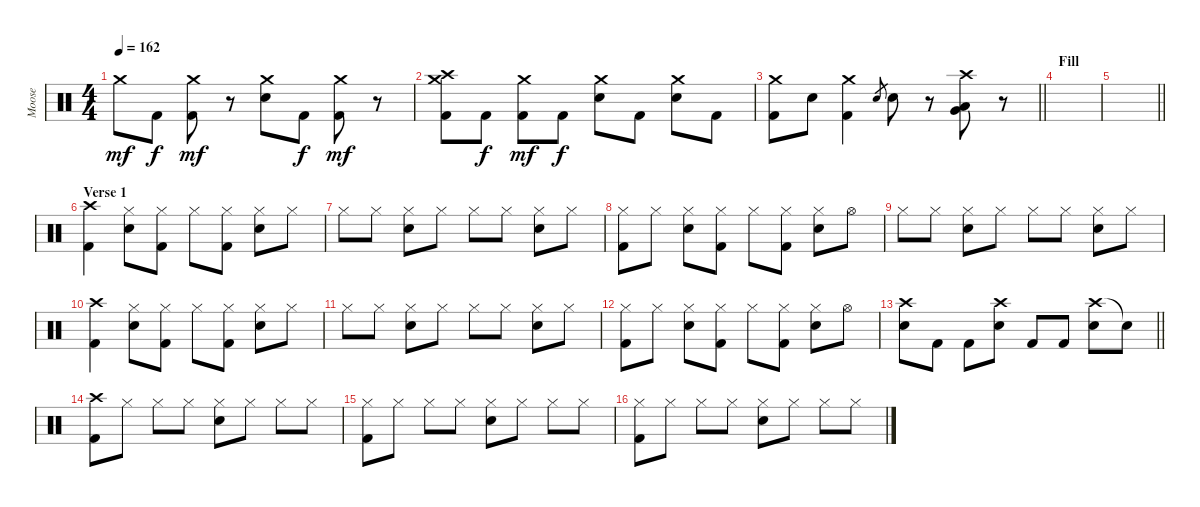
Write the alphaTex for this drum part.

\track ("Moose" "Moose") {instrument percussion}
\staff {score}
\articulation defaults
\ts (4 4)
\tempo 162
\clef neutral
\ks c "Crash medium (hit)".8{dy mf} "Kick (hit) 2".8{dy f}
("Kick (hit) 2" "Crash medium (hit)").8{dy mf} r.8 ("Snare (hit) 2" "Crash medium (hit)").8 "Kick (hit) 2".8{dy f} ("Kick (hit) 2" "Crash medium (hit)").8{dy mf} r.8 |
("Kick (hit) 2" "Crash high (hit)" "Crash medium (hit)").8 "Kick (hit) 2".8{dy f} ("Kick (hit) 2" "Crash medium (hit)").8{dy mf} "Kick (hit) 2".8{dy f} ("Crash medium (hit)" "Snare (hit) 2").8 "Kick (hit) 2".8 ("Crash medium (hit)" "Snare (hit) 2").8 "Kick (hit) 2".8 |
\barLineRight lightlight
("Crash medium (hit)" "Kick (hit) 2").8 "Snare (hit) 2".8 ("Crash medium (hit)" "Kick (hit) 2").4 "Snare (hit) 2".8{gr} "Snare (hit) 2".8 r.8 ("Crash high (hit)" "Very Low Tom (hit)" "Low Floor Tom (hit)").8 r.8 |
\section ("" "Fill")
|
\barLineRight lightlight
|
\section ("" "Verse 1")
("Crash high (hit)" "Kick (hit) 2").4 ("Hi-Hat (closed)" "Snare (hit) 2").8 ("Hi-Hat (closed)" "Kick (hit) 2").8 "Hi-Hat (closed)".8 ("Hi-Hat (closed)" "Kick (hit) 2").8 ("Hi-Hat (closed)" "Snare (hit) 2").8 "Hi-Hat (closed)".8 |
"Hi-Hat (closed)".8 "Hi-Hat (closed)".8 ("Hi-Hat (closed)" "Snare (hit) 2").8 "Hi-Hat (closed)".8 "Hi-Hat (closed)".8 "Hi-Hat (closed)".8 ("Hi-Hat (closed)" "Snare (hit) 2").8 "Hi-Hat (closed)".8 |
("Hi-Hat (closed)" "Kick (hit) 2").8 "Hi-Hat (closed)".8 ("Hi-Hat (closed)" "Snare (hit) 2").8 ("Hi-Hat (closed)" "Kick (hit) 2").8 "Hi-Hat (closed)".8 ("Hi-Hat (closed)" "Kick (hit) 2").8 ("Hi-Hat (closed)" "Snare (hit) 2").8 "Hi-Hat (open)".8 |
"Hi-Hat (closed)".8 "Hi-Hat (closed)".8 ("Hi-Hat (closed)" "Snare (hit) 2").8 "Hi-Hat (closed)".8 "Hi-Hat (closed)".8 "Hi-Hat (closed)".8 ("Hi-Hat (closed)" "Snare (hit) 2").8 "Hi-Hat (closed)".8 |
("Crash high (hit)" "Kick (hit) 2").4 ("Hi-Hat (closed)" "Snare (hit) 2").8 ("Hi-Hat (closed)" "Kick (hit) 2").8 "Hi-Hat (closed)".8 ("Hi-Hat (closed)" "Kick (hit) 2").8 ("Hi-Hat (closed)" "Snare (hit) 2").8 "Hi-Hat (closed)".8 |
"Hi-Hat (closed)".8 "Hi-Hat (closed)".8 ("Hi-Hat (closed)" "Snare (hit) 2").8 "Hi-Hat (closed)".8 "Hi-Hat (closed)".8 "Hi-Hat (closed)".8 ("Hi-Hat (closed)" "Snare (hit) 2").8 "Hi-Hat (closed)".8 |
("Hi-Hat (closed)" "Kick (hit) 2").8 "Hi-Hat (closed)".8 ("Hi-Hat (closed)" "Snare (hit) 2").8 ("Hi-Hat (closed)" "Kick (hit) 2").8 "Hi-Hat (closed)".8 ("Hi-Hat (closed)" "Kick (hit) 2").8 ("Hi-Hat (closed)" "Snare (hit) 2").8 "Hi-Hat (open)".8 |
\barLineRight lightlight
("Crash high (hit)" "Snare (hit) 2").8 "Kick (hit) 2".8 "Kick (hit) 2".8 ("Crash high (hit)" "Snare (hit) 2").8 "Kick (hit) 2".8 "Kick (hit) 2".8 ("Crash high (hit)" "Snare (hit) 2").8 "Snare (hit)"{t}.8 |
("Crash high (hit)" "Kick (hit) 2").8 "Hi-Hat (closed)".8 "Hi-Hat (closed)".8 "Hi-Hat (closed)".8 ("Hi-Hat (closed)" "Snare (hit) 2").8 "Hi-Hat (closed)".8 "Hi-Hat (closed)".8 "Hi-Hat (closed)".8 |
("Hi-Hat (closed)" "Kick (hit) 2").8 "Hi-Hat (closed)".8 "Hi-Hat (closed)".8 "Hi-Hat (closed)".8 ("Hi-Hat (closed)" "Snare (hit) 2").8 "Hi-Hat (closed)".8 "Hi-Hat (closed)".8 "Hi-Hat (closed)".8 |
("Hi-Hat (closed)" "Kick (hit) 2").8 "Hi-Hat (closed)".8 "Hi-Hat (closed)".8 "Hi-Hat (closed)".8 ("Hi-Hat (closed)" "Snare (hit) 2").8 "Hi-Hat (closed)".8 "Hi-Hat (closed)".8 "Hi-Hat (closed)".8
